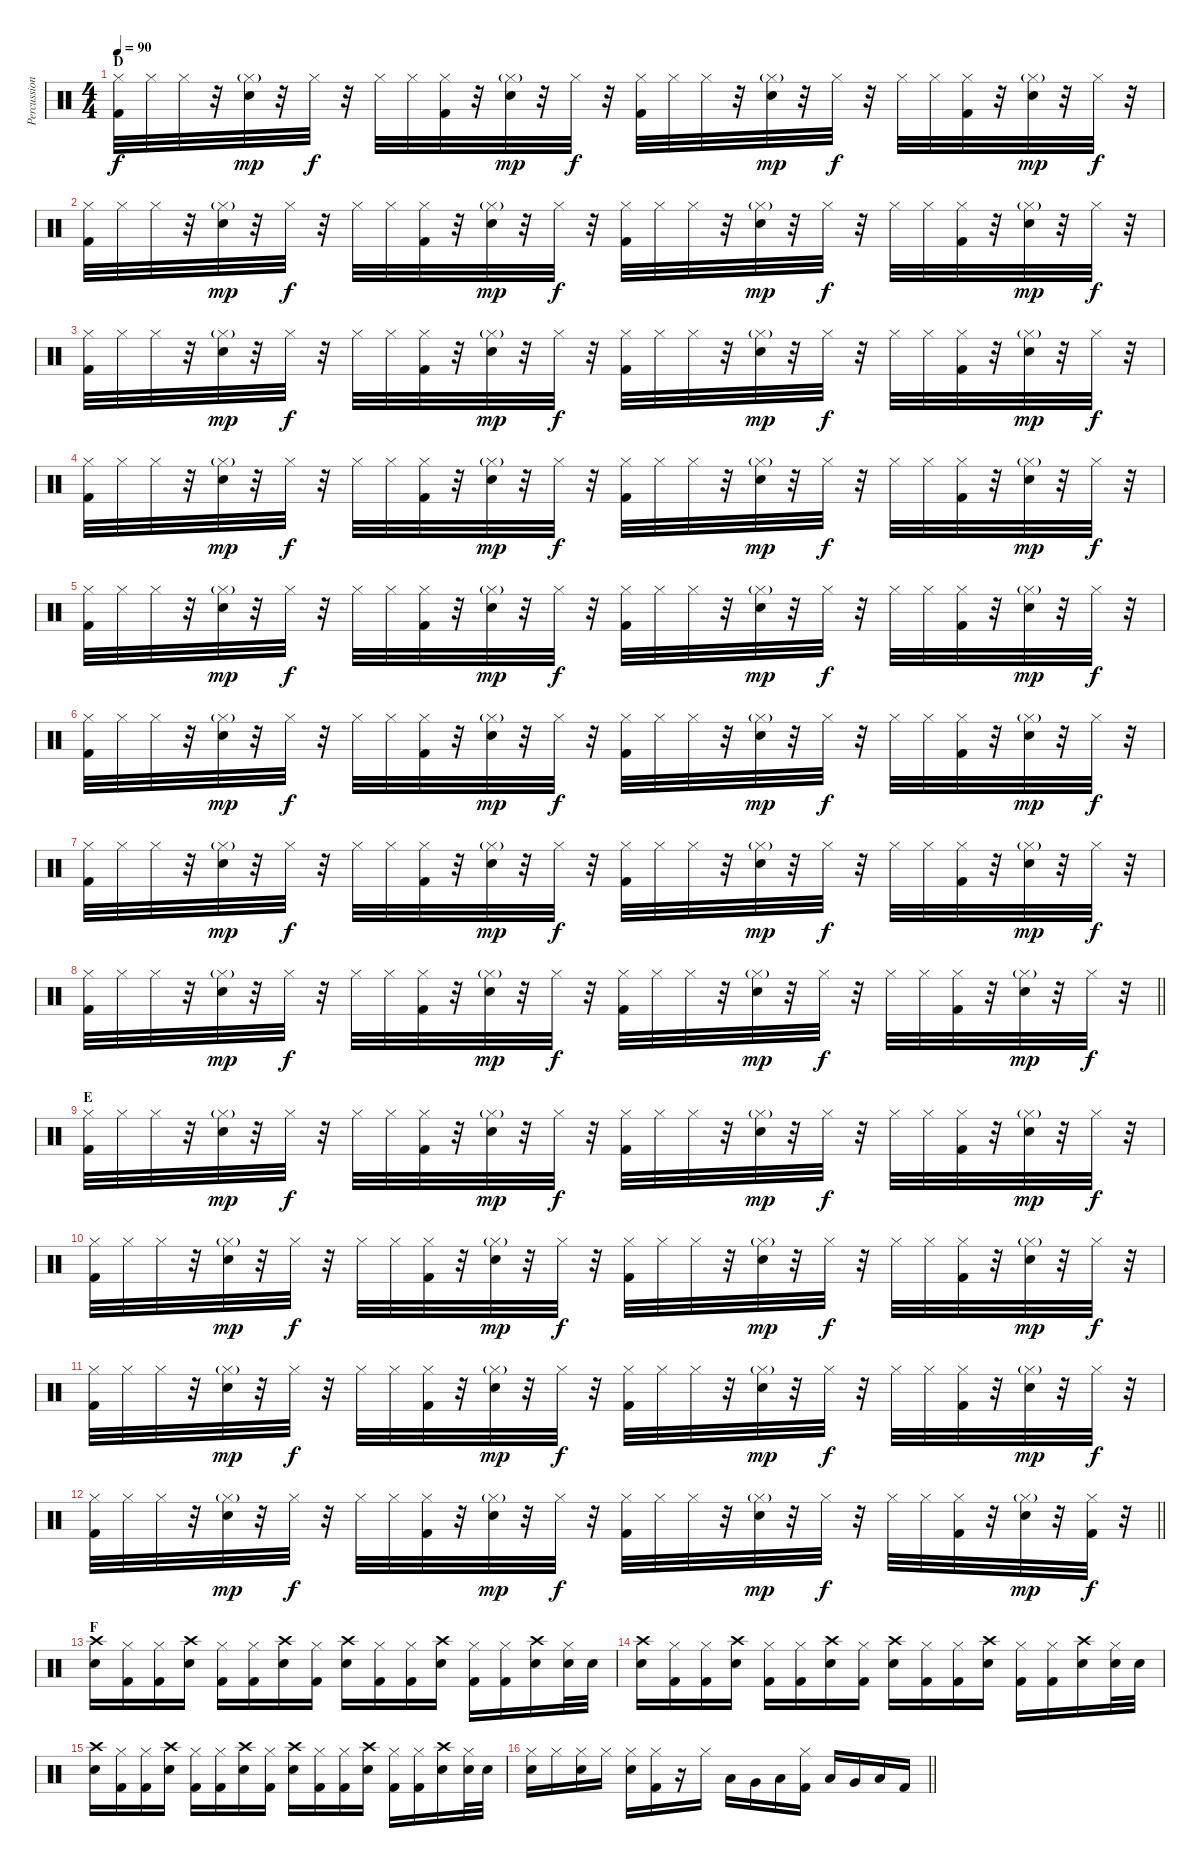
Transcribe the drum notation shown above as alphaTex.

\track ("Percussion" "Percussion") {instrument percussion}
\staff {score}
\articulation defaults
\ts (4 4)
\section ("" "D")
\tempo 90
\clef neutral
\ks c
("Hi-Hat (closed)" "Kick (hit) 2").32{dy f} "Hi-Hat (closed)".32 "Hi-Hat (closed)".32 r.32 ("Hi-Hat (closed)"{g} "Snare (hit) 2").32{dy mp} r.32 "Hi-Hat (closed)".32{dy f} r.32 "Hi-Hat (closed)".32 "Hi-Hat (closed)".32 ("Hi-Hat (closed)" "Kick (hit) 2").32 r.32 ("Hi-Hat (closed)"{g} "Snare (hit) 2").32{dy mp} r.32 "Hi-Hat (closed)".32{dy f} r.32 ("Hi-Hat (closed)" "Kick (hit) 2").32 "Hi-Hat (closed)".32 "Hi-Hat (closed)".32 r.32 ("Hi-Hat (closed)"{g} "Snare (hit) 2").32{dy mp} r.32 "Hi-Hat (closed)".32{dy f} r.32 "Hi-Hat (closed)".32 "Hi-Hat (closed)".32 ("Hi-Hat (closed)" "Kick (hit) 2").32 r.32 ("Hi-Hat (closed)"{g} "Snare (hit) 2").32{dy mp} r.32 "Hi-Hat (closed)".32{dy f} r.32 |
("Hi-Hat (closed)" "Kick (hit) 2").32 "Hi-Hat (closed)".32 "Hi-Hat (closed)".32 r.32 ("Hi-Hat (closed)"{g} "Snare (hit) 2").32{dy mp} r.32 "Hi-Hat (closed)".32{dy f} r.32 "Hi-Hat (closed)".32 "Hi-Hat (closed)".32 ("Hi-Hat (closed)" "Kick (hit) 2").32 r.32 ("Hi-Hat (closed)"{g} "Snare (hit) 2").32{dy mp} r.32 "Hi-Hat (closed)".32{dy f} r.32 ("Hi-Hat (closed)" "Kick (hit) 2").32 "Hi-Hat (closed)".32 "Hi-Hat (closed)".32 r.32 ("Hi-Hat (closed)"{g} "Snare (hit) 2").32{dy mp} r.32 "Hi-Hat (closed)".32{dy f} r.32 "Hi-Hat (closed)".32 "Hi-Hat (closed)".32 ("Hi-Hat (closed)" "Kick (hit) 2").32 r.32 ("Hi-Hat (closed)"{g} "Snare (hit) 2").32{dy mp} r.32 "Hi-Hat (closed)".32{dy f} r.32 |
("Hi-Hat (closed)" "Kick (hit) 2").32 "Hi-Hat (closed)".32 "Hi-Hat (closed)".32 r.32 ("Hi-Hat (closed)"{g} "Snare (hit) 2").32{dy mp} r.32 "Hi-Hat (closed)".32{dy f} r.32 "Hi-Hat (closed)".32 "Hi-Hat (closed)".32 ("Hi-Hat (closed)" "Kick (hit) 2").32 r.32 ("Hi-Hat (closed)"{g} "Snare (hit) 2").32{dy mp} r.32 "Hi-Hat (closed)".32{dy f} r.32 ("Hi-Hat (closed)" "Kick (hit) 2").32 "Hi-Hat (closed)".32 "Hi-Hat (closed)".32 r.32 ("Hi-Hat (closed)"{g} "Snare (hit) 2").32{dy mp} r.32 "Hi-Hat (closed)".32{dy f} r.32 "Hi-Hat (closed)".32 "Hi-Hat (closed)".32 ("Hi-Hat (closed)" "Kick (hit) 2").32 r.32 ("Hi-Hat (closed)"{g} "Snare (hit) 2").32{dy mp} r.32 "Hi-Hat (closed)".32{dy f} r.32 |
("Hi-Hat (closed)" "Kick (hit) 2").32 "Hi-Hat (closed)".32 "Hi-Hat (closed)".32 r.32 ("Hi-Hat (closed)"{g} "Snare (hit) 2").32{dy mp} r.32 "Hi-Hat (closed)".32{dy f} r.32 "Hi-Hat (closed)".32 "Hi-Hat (closed)".32 ("Hi-Hat (closed)" "Kick (hit) 2").32 r.32 ("Hi-Hat (closed)"{g} "Snare (hit) 2").32{dy mp} r.32 "Hi-Hat (closed)".32{dy f} r.32 ("Hi-Hat (closed)" "Kick (hit) 2").32 "Hi-Hat (closed)".32 "Hi-Hat (closed)".32 r.32 ("Hi-Hat (closed)"{g} "Snare (hit) 2").32{dy mp} r.32 "Hi-Hat (closed)".32{dy f} r.32 "Hi-Hat (closed)".32 "Hi-Hat (closed)".32 ("Hi-Hat (closed)" "Kick (hit) 2").32 r.32 ("Hi-Hat (closed)"{g} "Snare (hit) 2").32{dy mp} r.32 "Hi-Hat (closed)".32{dy f} r.32 |
("Hi-Hat (closed)" "Kick (hit) 2").32 "Hi-Hat (closed)".32 "Hi-Hat (closed)".32 r.32 ("Hi-Hat (closed)"{g} "Snare (hit) 2").32{dy mp} r.32 "Hi-Hat (closed)".32{dy f} r.32 "Hi-Hat (closed)".32 "Hi-Hat (closed)".32 ("Hi-Hat (closed)" "Kick (hit) 2").32 r.32 ("Hi-Hat (closed)"{g} "Snare (hit) 2").32{dy mp} r.32 "Hi-Hat (closed)".32{dy f} r.32 ("Hi-Hat (closed)" "Kick (hit) 2").32 "Hi-Hat (closed)".32 "Hi-Hat (closed)".32 r.32 ("Hi-Hat (closed)"{g} "Snare (hit) 2").32{dy mp} r.32 "Hi-Hat (closed)".32{dy f} r.32 "Hi-Hat (closed)".32 "Hi-Hat (closed)".32 ("Hi-Hat (closed)" "Kick (hit) 2").32 r.32 ("Hi-Hat (closed)"{g} "Snare (hit) 2").32{dy mp} r.32 "Hi-Hat (closed)".32{dy f} r.32 |
("Hi-Hat (closed)" "Kick (hit) 2").32 "Hi-Hat (closed)".32 "Hi-Hat (closed)".32 r.32 ("Hi-Hat (closed)"{g} "Snare (hit) 2").32{dy mp} r.32 "Hi-Hat (closed)".32{dy f} r.32 "Hi-Hat (closed)".32 "Hi-Hat (closed)".32 ("Hi-Hat (closed)" "Kick (hit) 2").32 r.32 ("Hi-Hat (closed)"{g} "Snare (hit) 2").32{dy mp} r.32 "Hi-Hat (closed)".32{dy f} r.32 ("Hi-Hat (closed)" "Kick (hit) 2").32 "Hi-Hat (closed)".32 "Hi-Hat (closed)".32 r.32 ("Hi-Hat (closed)"{g} "Snare (hit) 2").32{dy mp} r.32 "Hi-Hat (closed)".32{dy f} r.32 "Hi-Hat (closed)".32 "Hi-Hat (closed)".32 ("Hi-Hat (closed)" "Kick (hit) 2").32 r.32 ("Hi-Hat (closed)"{g} "Snare (hit) 2").32{dy mp} r.32 "Hi-Hat (closed)".32{dy f} r.32 |
("Hi-Hat (closed)" "Kick (hit) 2").32 "Hi-Hat (closed)".32 "Hi-Hat (closed)".32 r.32 ("Hi-Hat (closed)"{g} "Snare (hit) 2").32{dy mp} r.32 "Hi-Hat (closed)".32{dy f} r.32 "Hi-Hat (closed)".32 "Hi-Hat (closed)".32 ("Hi-Hat (closed)" "Kick (hit) 2").32 r.32 ("Hi-Hat (closed)"{g} "Snare (hit) 2").32{dy mp} r.32 "Hi-Hat (closed)".32{dy f} r.32 ("Hi-Hat (closed)" "Kick (hit) 2").32 "Hi-Hat (closed)".32 "Hi-Hat (closed)".32 r.32 ("Hi-Hat (closed)"{g} "Snare (hit) 2").32{dy mp} r.32 "Hi-Hat (closed)".32{dy f} r.32 "Hi-Hat (closed)".32 "Hi-Hat (closed)".32 ("Hi-Hat (closed)" "Kick (hit) 2").32 r.32 ("Hi-Hat (closed)"{g} "Snare (hit) 2").32{dy mp} r.32 "Hi-Hat (closed)".32{dy f} r.32 |
\barLineRight lightlight
("Hi-Hat (closed)" "Kick (hit) 2").32 "Hi-Hat (closed)".32 "Hi-Hat (closed)".32 r.32 ("Hi-Hat (closed)"{g} "Snare (hit) 2").32{dy mp} r.32 "Hi-Hat (closed)".32{dy f} r.32 "Hi-Hat (closed)".32 "Hi-Hat (closed)".32 ("Hi-Hat (closed)" "Kick (hit) 2").32 r.32 ("Hi-Hat (closed)"{g} "Snare (hit) 2").32{dy mp} r.32 "Hi-Hat (closed)".32{dy f} r.32 ("Hi-Hat (closed)" "Kick (hit) 2").32 "Hi-Hat (closed)".32 "Hi-Hat (closed)".32 r.32 ("Hi-Hat (closed)"{g} "Snare (hit) 2").32{dy mp} r.32 "Hi-Hat (closed)".32{dy f} r.32 "Hi-Hat (closed)".32 "Hi-Hat (closed)".32 ("Hi-Hat (closed)" "Kick (hit) 2").32 r.32 ("Hi-Hat (closed)"{g} "Snare (hit) 2").32{dy mp} r.32 "Hi-Hat (closed)".32{dy f} r.32 |
\section ("" "E")
("Hi-Hat (closed)" "Kick (hit) 2").32 "Hi-Hat (closed)".32 "Hi-Hat (closed)".32 r.32 ("Hi-Hat (closed)"{g} "Snare (hit) 2").32{dy mp} r.32 "Hi-Hat (closed)".32{dy f} r.32 "Hi-Hat (closed)".32 "Hi-Hat (closed)".32 ("Hi-Hat (closed)" "Kick (hit) 2").32 r.32 ("Hi-Hat (closed)"{g} "Snare (hit) 2").32{dy mp} r.32 "Hi-Hat (closed)".32{dy f} r.32 ("Hi-Hat (closed)" "Kick (hit) 2").32 "Hi-Hat (closed)".32 "Hi-Hat (closed)".32 r.32 ("Hi-Hat (closed)"{g} "Snare (hit) 2").32{dy mp} r.32 "Hi-Hat (closed)".32{dy f} r.32 "Hi-Hat (closed)".32 "Hi-Hat (closed)".32 ("Hi-Hat (closed)" "Kick (hit) 2").32 r.32 ("Hi-Hat (closed)"{g} "Snare (hit) 2").32{dy mp} r.32 "Hi-Hat (closed)".32{dy f} r.32 |
("Hi-Hat (closed)" "Kick (hit) 2").32 "Hi-Hat (closed)".32 "Hi-Hat (closed)".32 r.32 ("Hi-Hat (closed)"{g} "Snare (hit) 2").32{dy mp} r.32 "Hi-Hat (closed)".32{dy f} r.32 "Hi-Hat (closed)".32 "Hi-Hat (closed)".32 ("Hi-Hat (closed)" "Kick (hit) 2").32 r.32 ("Hi-Hat (closed)"{g} "Snare (hit) 2").32{dy mp} r.32 "Hi-Hat (closed)".32{dy f} r.32 ("Hi-Hat (closed)" "Kick (hit) 2").32 "Hi-Hat (closed)".32 "Hi-Hat (closed)".32 r.32 ("Hi-Hat (closed)"{g} "Snare (hit) 2").32{dy mp} r.32 "Hi-Hat (closed)".32{dy f} r.32 "Hi-Hat (closed)".32 "Hi-Hat (closed)".32 ("Hi-Hat (closed)" "Kick (hit) 2").32 r.32 ("Hi-Hat (closed)"{g} "Snare (hit) 2").32{dy mp} r.32 "Hi-Hat (closed)".32{dy f} r.32 |
("Hi-Hat (closed)" "Kick (hit) 2").32 "Hi-Hat (closed)".32 "Hi-Hat (closed)".32 r.32 ("Hi-Hat (closed)"{g} "Snare (hit) 2").32{dy mp} r.32 "Hi-Hat (closed)".32{dy f} r.32 "Hi-Hat (closed)".32 "Hi-Hat (closed)".32 ("Hi-Hat (closed)" "Kick (hit) 2").32 r.32 ("Hi-Hat (closed)"{g} "Snare (hit) 2").32{dy mp} r.32 "Hi-Hat (closed)".32{dy f} r.32 ("Hi-Hat (closed)" "Kick (hit) 2").32 "Hi-Hat (closed)".32 "Hi-Hat (closed)".32 r.32 ("Hi-Hat (closed)"{g} "Snare (hit) 2").32{dy mp} r.32 "Hi-Hat (closed)".32{dy f} r.32 "Hi-Hat (closed)".32 "Hi-Hat (closed)".32 ("Hi-Hat (closed)" "Kick (hit) 2").32 r.32 ("Hi-Hat (closed)"{g} "Snare (hit) 2").32{dy mp} r.32 "Hi-Hat (closed)".32{dy f} r.32 |
\barLineRight lightlight
("Hi-Hat (closed)" "Kick (hit) 2").32 "Hi-Hat (closed)".32 "Hi-Hat (closed)".32 r.32 ("Hi-Hat (closed)"{g} "Snare (hit) 2").32{dy mp} r.32 "Hi-Hat (closed)".32{dy f} r.32 "Hi-Hat (closed)".32 "Hi-Hat (closed)".32 ("Hi-Hat (closed)" "Kick (hit) 2").32 r.32 ("Hi-Hat (closed)"{g} "Snare (hit) 2").32{dy mp} r.32 "Hi-Hat (closed)".32{dy f} r.32 ("Hi-Hat (closed)" "Kick (hit) 2").32 "Hi-Hat (closed)".32 "Hi-Hat (closed)".32 r.32 ("Hi-Hat (closed)"{g} "Snare (hit) 2").32{dy mp} r.32 "Hi-Hat (closed)".32{dy f} r.32 "Hi-Hat (closed)".32 "Hi-Hat (closed)".32 ("Hi-Hat (closed)" "Kick (hit) 2").32 r.32 ("Hi-Hat (closed)"{g} "Snare (hit) 2").32{dy mp} r.32 ("Hi-Hat (closed)" "Kick (hit) 2").32{dy f} r.32 |
\section ("" "F")
("Crash high (hit)" "Snare (hit) 2").16 ("Hi-Hat (closed)" "Kick (hit) 2").16 ("Hi-Hat (closed)" "Kick (hit) 2").16 ("Crash high (hit)" "Snare (hit) 2").16 ("Hi-Hat (closed)" "Kick (hit) 2").16 ("Hi-Hat (closed)" "Kick (hit) 2").16 ("Crash high (hit)" "Snare (hit) 2").16 ("Hi-Hat (closed)" "Kick (hit) 2").16 ("Crash high (hit)" "Snare (hit) 2").16 ("Hi-Hat (closed)" "Kick (hit) 2").16 ("Hi-Hat (closed)" "Kick (hit) 2").16 ("Crash high (hit)" "Snare (hit) 2").16 ("Hi-Hat (closed)" "Kick (hit) 2").16 ("Hi-Hat (closed)" "Kick (hit) 2").16 ("Crash high (hit)" "Snare (hit) 2").16 ("Hi-Hat (closed)" "Snare (hit) 2").32 "Snare (hit) 2".32 |
("Crash high (hit)" "Snare (hit) 2").16 ("Hi-Hat (closed)" "Kick (hit) 2").16 ("Hi-Hat (closed)" "Kick (hit) 2").16 ("Crash high (hit)" "Snare (hit) 2").16 ("Hi-Hat (closed)" "Kick (hit) 2").16 ("Hi-Hat (closed)" "Kick (hit) 2").16 ("Crash high (hit)" "Snare (hit) 2").16 ("Hi-Hat (closed)" "Kick (hit) 2").16 ("Crash high (hit)" "Snare (hit) 2").16 ("Hi-Hat (closed)" "Kick (hit) 2").16 ("Hi-Hat (closed)" "Kick (hit) 2").16 ("Crash high (hit)" "Snare (hit) 2").16 ("Hi-Hat (closed)" "Kick (hit) 2").16 ("Hi-Hat (closed)" "Kick (hit) 2").16 ("Crash high (hit)" "Snare (hit) 2").16 ("Hi-Hat (closed)" "Snare (hit) 2").32 "Snare (hit) 2".32 |
("Crash high (hit)" "Snare (hit) 2").16 ("Hi-Hat (closed)" "Kick (hit) 2").16 ("Hi-Hat (closed)" "Kick (hit) 2").16 ("Crash high (hit)" "Snare (hit) 2").16 ("Hi-Hat (closed)" "Kick (hit) 2").16 ("Hi-Hat (closed)" "Kick (hit) 2").16 ("Crash high (hit)" "Snare (hit) 2").16 ("Hi-Hat (closed)" "Kick (hit) 2").16 ("Crash high (hit)" "Snare (hit) 2").16 ("Hi-Hat (closed)" "Kick (hit) 2").16 ("Hi-Hat (closed)" "Kick (hit) 2").16 ("Crash high (hit)" "Snare (hit) 2").16 ("Hi-Hat (closed)" "Kick (hit) 2").16 ("Hi-Hat (closed)" "Kick (hit) 2").16 ("Crash high (hit)" "Snare (hit) 2").16 ("Hi-Hat (closed)" "Snare (hit) 2").32 "Snare (hit) 2".32 |
\barLineRight lightlight
("Hi-Hat (closed)" "Snare (hit) 2").16 "Hi-Hat (closed)".16 ("Hi-Hat (closed)" "Snare (hit) 2").16 "Hi-Hat (closed)".16 ("Hi-Hat (closed)" "Snare (hit) 2").16 ("Hi-Hat (closed)" "Kick (hit) 2").16 r.16 "Hi-Hat (closed)".16 "Low Tom (hit)".16 "Very Low Tom (hit)".16 "Low Floor Tom (hit)".16 ("Hi-Hat (closed)" "Kick (hit) 2").16 "Low Tom (hit)".16 "Very Low Tom (hit)".16 "Low Floor Tom (hit)".16 "Kick (hit) 2".16
